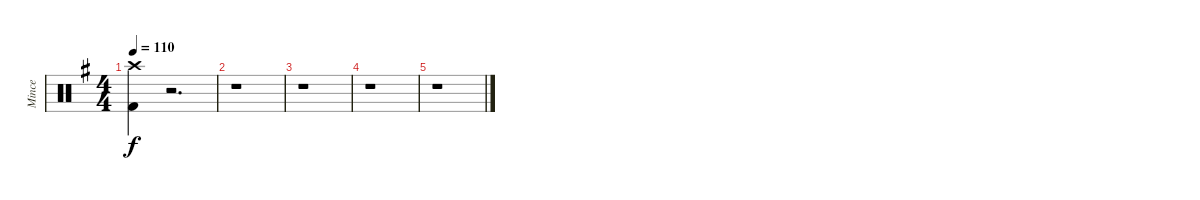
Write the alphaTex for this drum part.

\track ("Mince" "Mince") {instrument percussion}
\staff {score}
\articulation defaults
\ts (4 4)
\tempo 110
\clef neutral
\ks g
("Kick (hit) 2" "Crash high (hit)").4{dy f} r.2{d} |
r.1 |
r.1 |
r.1 |
r.1
